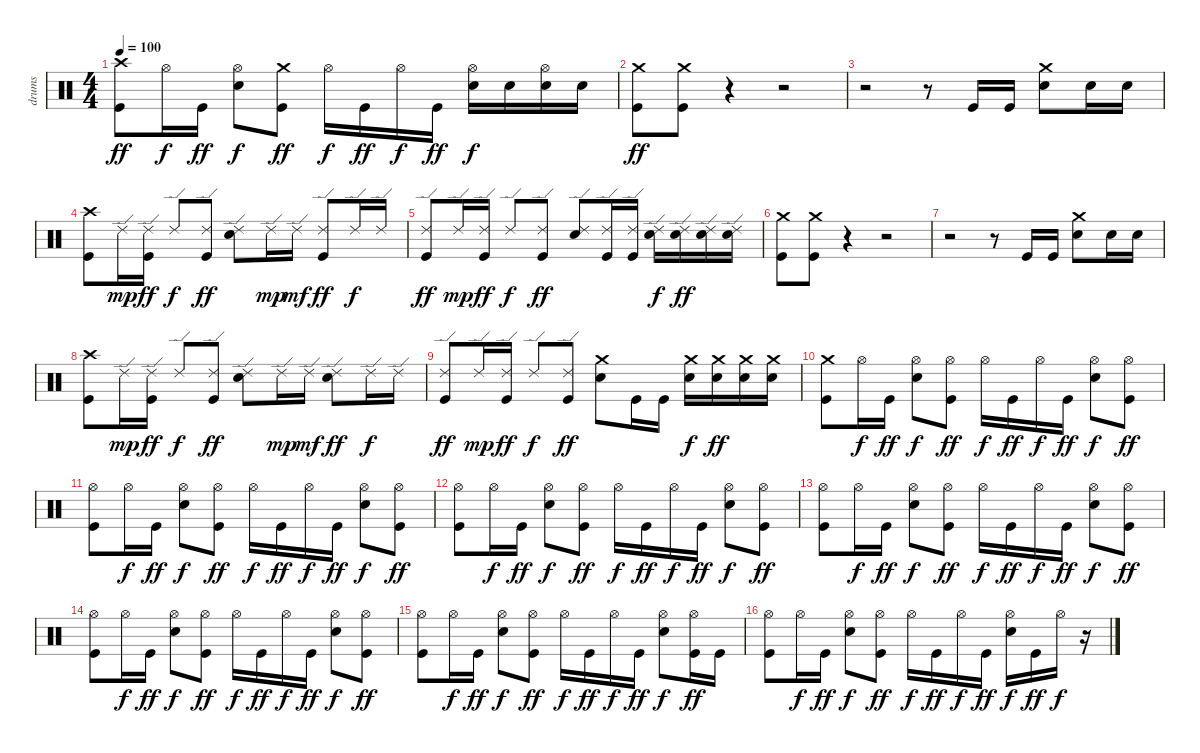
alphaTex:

\track ("drums" "drums") {instrument percussion}
\staff {score}
\articulation defaults
\ts (4 4)
\tempo 100
\clef neutral
\ks c
("Crash high (hit)" "Kick (hit)").8{dy ff} "Hi-Hat (open)".16{dy f} "Kick (hit)".16{dy ff} ("Hi-Hat (open)" "Snare (hit) 2").8{dy f} ("Crash medium (hit)" "Kick (hit)").8{dy ff} "Hi-Hat (open)".16{dy f} "Kick (hit)".16{dy ff} "Hi-Hat (open)".16{dy f} "Kick (hit)".16{dy ff} ("Hi-Hat (open)" "Snare (hit) 2").16{dy f} "Snare (hit) 2".16 ("Hi-Hat (open)" "Snare (hit) 2").16 "Snare (hit) 2".16 |
("Crash medium (hit)" "Kick (hit)").8{dy ff} ("Crash medium (hit)" "Kick (hit)").8 r.4 r.2 |
r.2 r.8 "Kick (hit)".16 "Kick (hit)".16 ("Crash medium (hit)" "Snare (hit) 2").8 "Snare (hit) 2".16 "Snare (hit) 2".16 |
("Crash high (hit)" "Kick (hit)").8 "Ride (edge) 2".16{dy mp} ("Ride (edge) 2" "Kick (hit)").16{dy ff} "Ride (edge) 2".8{dy f} ("Ride (edge) 2" "Kick (hit)").8{dy ff} ("Ride (edge) 2" "Snare (hit) 2").8 "Ride (edge) 2".16{dy mp} "Ride (edge) 2".16{dy mf} ("Ride (edge) 2" "Kick (hit)").8{dy ff} "Ride (edge) 2".16{dy f} "Ride (edge) 2".16 |
("Ride (edge) 2" "Kick (hit)").8{dy ff} "Ride (edge) 2".16{dy mp} ("Ride (edge) 2" "Kick (hit)").16{dy ff} "Ride (edge) 2".8{dy f} ("Ride (edge) 2" "Kick (hit)").8{dy ff} ("Ride (edge) 2" "Snare (hit) 2").8 ("Ride (edge) 2" "Kick (hit)").16 ("Ride (edge) 2" "Kick (hit)").16 ("Ride (edge) 2" "Snare (hit) 2").16{dy f} ("Ride (edge) 2" "Snare (hit) 2").16{dy ff} ("Ride (edge) 2" "Snare (hit) 2").16 ("Ride (edge) 2" "Snare (hit) 2").16 |
("Crash medium (hit)" "Kick (hit)").8 ("Crash medium (hit)" "Kick (hit)").8 r.4 r.2 |
r.2 r.8 "Kick (hit)".16 "Kick (hit)".16 ("Crash medium (hit)" "Snare (hit) 2").8 "Snare (hit) 2".16 "Snare (hit) 2".16 |
("Crash high (hit)" "Kick (hit)").8 "Ride (edge) 2".16{dy mp} ("Ride (edge) 2" "Kick (hit)").16{dy ff} "Ride (edge) 2".8{dy f} ("Ride (edge) 2" "Kick (hit)").8{dy ff} ("Ride (edge) 2" "Snare (hit) 2").8 "Ride (edge) 2".16{dy mp} "Ride (edge) 2".16{dy mf} ("Ride (edge) 2" "Snare (hit) 2").8{dy ff} "Ride (edge) 2".16{dy f} "Ride (edge) 2".16 |
("Ride (edge) 2" "Kick (hit)").8{dy ff} "Ride (edge) 2".16{dy mp} ("Ride (edge) 2" "Kick (hit)").16{dy ff} "Ride (edge) 2".8{dy f} ("Ride (edge) 2" "Kick (hit)").8{dy ff} ("Crash medium (hit)" "Snare (hit) 2").8 "Kick (hit)".16 "Kick (hit)".16 ("Crash medium (hit)" "Snare (hit) 2").16{dy f} ("Crash medium (hit)" "Snare (hit) 2").16{dy ff} ("Crash medium (hit)" "Snare (hit) 2").16 ("Crash medium (hit)" "Snare (hit) 2").16 |
("Crash medium (hit)" "Kick (hit)").8 "Hi-Hat (open)".16{dy f} "Kick (hit)".16{dy ff} ("Hi-Hat (open)" "Snare (hit) 2").8{dy f} ("Hi-Hat (open)" "Kick (hit)").8{dy ff} "Hi-Hat (open)".16{dy f} "Kick (hit)".16{dy ff} "Hi-Hat (open)".16{dy f} "Kick (hit)".16{dy ff} ("Hi-Hat (open)" "Snare (hit) 2").8{dy f} ("Hi-Hat (open)" "Kick (hit)").8{dy ff} |
("Hi-Hat (open)" "Kick (hit)").8 "Hi-Hat (open)".16{dy f} "Kick (hit)".16{dy ff} ("Hi-Hat (open)" "Snare (hit) 2").8{dy f} ("Hi-Hat (open)" "Kick (hit)").8{dy ff} "Hi-Hat (open)".16{dy f} "Kick (hit)".16{dy ff} "Hi-Hat (open)".16{dy f} "Kick (hit)".16{dy ff} ("Hi-Hat (open)" "Snare (hit) 2").8{dy f} ("Hi-Hat (open)" "Kick (hit)").8{dy ff} |
("Hi-Hat (open)" "Kick (hit)").8 "Hi-Hat (open)".16{dy f} "Kick (hit)".16{dy ff} ("Hi-Hat (open)" "Snare (hit) 2").8{dy f} ("Hi-Hat (open)" "Kick (hit)").8{dy ff} "Hi-Hat (open)".16{dy f} "Kick (hit)".16{dy ff} "Hi-Hat (open)".16{dy f} "Kick (hit)".16{dy ff} ("Hi-Hat (open)" "Snare (hit) 2").8{dy f} ("Hi-Hat (open)" "Kick (hit)").8{dy ff} |
("Hi-Hat (open)" "Kick (hit)").8 "Hi-Hat (open)".16{dy f} "Kick (hit)".16{dy ff} ("Hi-Hat (open)" "Snare (hit) 2").8{dy f} ("Hi-Hat (open)" "Kick (hit)").8{dy ff} "Hi-Hat (open)".16{dy f} "Kick (hit)".16{dy ff} "Hi-Hat (open)".16{dy f} "Kick (hit)".16{dy ff} ("Hi-Hat (open)" "Snare (hit) 2").8{dy f} ("Hi-Hat (open)" "Kick (hit)").8{dy ff} |
("Hi-Hat (open)" "Kick (hit)").8 "Hi-Hat (open)".16{dy f} "Kick (hit)".16{dy ff} ("Hi-Hat (open)" "Snare (hit) 2").8{dy f} ("Hi-Hat (open)" "Kick (hit)").8{dy ff} "Hi-Hat (open)".16{dy f} "Kick (hit)".16{dy ff} "Hi-Hat (open)".16{dy f} "Kick (hit)".16{dy ff} ("Hi-Hat (open)" "Snare (hit) 2").8{dy f} ("Hi-Hat (open)" "Kick (hit)").8{dy ff} |
("Hi-Hat (open)" "Kick (hit)").8 "Hi-Hat (open)".16{dy f} "Kick (hit)".16{dy ff} ("Hi-Hat (open)" "Snare (hit) 2").8{dy f} ("Hi-Hat (open)" "Kick (hit)").8{dy ff} "Hi-Hat (open)".16{dy f} "Kick (hit)".16{dy ff} "Hi-Hat (open)".16{dy f} "Kick (hit)".16{dy ff} ("Hi-Hat (open)" "Snare (hit) 2").8{dy f} ("Hi-Hat (open)" "Kick (hit)").16{dy ff} "Kick (hit)".16 |
("Hi-Hat (open)" "Kick (hit)").8 "Hi-Hat (open)".16{dy f} "Kick (hit)".16{dy ff} ("Hi-Hat (open)" "Snare (hit) 2").8{dy f} ("Hi-Hat (open)" "Kick (hit)").8{dy ff} "Hi-Hat (open)".16{dy f} "Kick (hit)".16{dy ff} "Hi-Hat (open)".16{dy f} "Kick (hit)".16{dy ff} ("Hi-Hat (open)" "Snare (hit) 2").16{dy f} "Kick (hit)".16{dy ff} "Hi-Hat (open)".16{dy f} r.16
